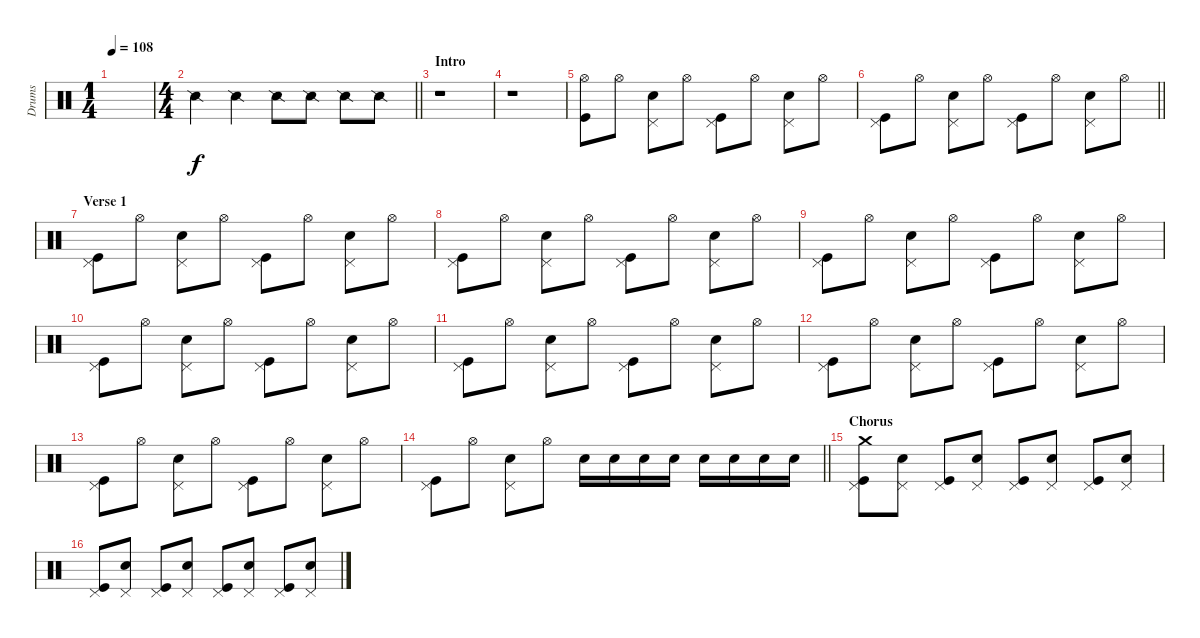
\track ("Drums" "Drums") {instrument percussion}
\staff {score}
\articulation defaults
\ts (1 4)
\tempo 108
\clef neutral
\ks c
|
\ts (4 4)
\barLineRight lightlight "Snare (side stick) 2".4 "Snare (side stick) 2".4 "Snare (side stick) 2".8 "Snare (side stick) 2".8 "Snare (side stick) 2".8 "Snare (side stick) 2".8
|
\section ("" "Intro")
r.1 |
r.1 |
("Hi-Hat (open)" "Kick (hit)").8 "Hi-Hat (open)".8 ("Pedal Hi-Hat (hit)" "Electric Snare (hit)").8 "Hi-Hat (open)".8 ("Pedal Hi-Hat (hit)" "Kick (hit)").8 "Hi-Hat (open)".8 ("Pedal Hi-Hat (hit)" "Electric Snare (hit)").8 "Hi-Hat (open)".8 |
\barLineRight lightlight
("Pedal Hi-Hat (hit)" "Kick (hit)").8 "Hi-Hat (open)".8 ("Pedal Hi-Hat (hit)" "Electric Snare (hit)").8 "Hi-Hat (open)".8 ("Pedal Hi-Hat (hit)" "Kick (hit)").8 "Hi-Hat (open)".8 ("Pedal Hi-Hat (hit)" "Electric Snare (hit)").8 "Hi-Hat (open)".8 |
\section ("" "Verse 1")
("Pedal Hi-Hat (hit)" "Kick (hit)").8 "Hi-Hat (open)".8 ("Pedal Hi-Hat (hit)" "Electric Snare (hit)").8 "Hi-Hat (open)".8 ("Pedal Hi-Hat (hit)" "Kick (hit)").8 "Hi-Hat (open)".8 ("Pedal Hi-Hat (hit)" "Electric Snare (hit)").8 "Hi-Hat (open)".8 |
("Pedal Hi-Hat (hit)" "Kick (hit)").8 "Hi-Hat (open)".8 ("Pedal Hi-Hat (hit)" "Electric Snare (hit)").8 "Hi-Hat (open)".8 ("Pedal Hi-Hat (hit)" "Kick (hit)").8 "Hi-Hat (open)".8 ("Pedal Hi-Hat (hit)" "Electric Snare (hit)").8 "Hi-Hat (open)".8 |
("Pedal Hi-Hat (hit)" "Kick (hit)").8 "Hi-Hat (open)".8 ("Pedal Hi-Hat (hit)" "Electric Snare (hit)").8 "Hi-Hat (open)".8 ("Pedal Hi-Hat (hit)" "Kick (hit)").8 "Hi-Hat (open)".8 ("Pedal Hi-Hat (hit)" "Electric Snare (hit)").8 "Hi-Hat (open)".8 |
("Pedal Hi-Hat (hit)" "Kick (hit)").8 "Hi-Hat (open)".8 ("Pedal Hi-Hat (hit)" "Electric Snare (hit)").8 "Hi-Hat (open)".8 ("Pedal Hi-Hat (hit)" "Kick (hit)").8 "Hi-Hat (open)".8 ("Pedal Hi-Hat (hit)" "Electric Snare (hit)").8 "Hi-Hat (open)".8 |
("Pedal Hi-Hat (hit)" "Kick (hit)").8 "Hi-Hat (open)".8 ("Pedal Hi-Hat (hit)" "Electric Snare (hit)").8 "Hi-Hat (open)".8 ("Pedal Hi-Hat (hit)" "Kick (hit)").8 "Hi-Hat (open)".8 ("Pedal Hi-Hat (hit)" "Electric Snare (hit)").8 "Hi-Hat (open)".8 |
("Pedal Hi-Hat (hit)" "Kick (hit)").8 "Hi-Hat (open)".8 ("Pedal Hi-Hat (hit)" "Electric Snare (hit)").8 "Hi-Hat (open)".8 ("Pedal Hi-Hat (hit)" "Kick (hit)").8 "Hi-Hat (open)".8 ("Pedal Hi-Hat (hit)" "Electric Snare (hit)").8 "Hi-Hat (open)".8 |
("Pedal Hi-Hat (hit)" "Kick (hit)").8 "Hi-Hat (open)".8 ("Pedal Hi-Hat (hit)" "Electric Snare (hit)").8 "Hi-Hat (open)".8 ("Pedal Hi-Hat (hit)" "Kick (hit)").8 "Hi-Hat (open)".8 ("Pedal Hi-Hat (hit)" "Electric Snare (hit)").8 "Hi-Hat (open)".8 |
\barLineRight lightlight
("Pedal Hi-Hat (hit)" "Kick (hit)").8 "Hi-Hat (open)".8 ("Pedal Hi-Hat (hit)" "Electric Snare (hit)").8 "Hi-Hat (open)".8 "Electric Snare (hit)".16 "Electric Snare (hit)".16 "Electric Snare (hit)".16 "Electric Snare (hit)".16 "Electric Snare (hit)".16 "Electric Snare (hit)".16 "Electric Snare (hit)".16 "Electric Snare (hit)".16 |
\section ("" "Chorus")
("Pedal Hi-Hat (hit)" "Crash medium (hit)" "Kick (hit)").8 ("Pedal Hi-Hat (hit)" "Electric Snare (hit)").8 ("Pedal Hi-Hat (hit)" "Kick (hit)").8 ("Pedal Hi-Hat (hit)" "Electric Snare (hit)").8 ("Pedal Hi-Hat (hit)" "Kick (hit)").8 ("Pedal Hi-Hat (hit)" "Electric Snare (hit)").8 ("Pedal Hi-Hat (hit)" "Kick (hit)").8 ("Pedal Hi-Hat (hit)" "Electric Snare (hit)").8 |
("Pedal Hi-Hat (hit)" "Kick (hit)").8 ("Pedal Hi-Hat (hit)" "Electric Snare (hit)").8 ("Pedal Hi-Hat (hit)" "Kick (hit)").8 ("Pedal Hi-Hat (hit)" "Electric Snare (hit)").8 ("Pedal Hi-Hat (hit)" "Kick (hit)").8 ("Pedal Hi-Hat (hit)" "Electric Snare (hit)").8 ("Pedal Hi-Hat (hit)" "Kick (hit)").8 ("Pedal Hi-Hat (hit)" "Electric Snare (hit)").8
